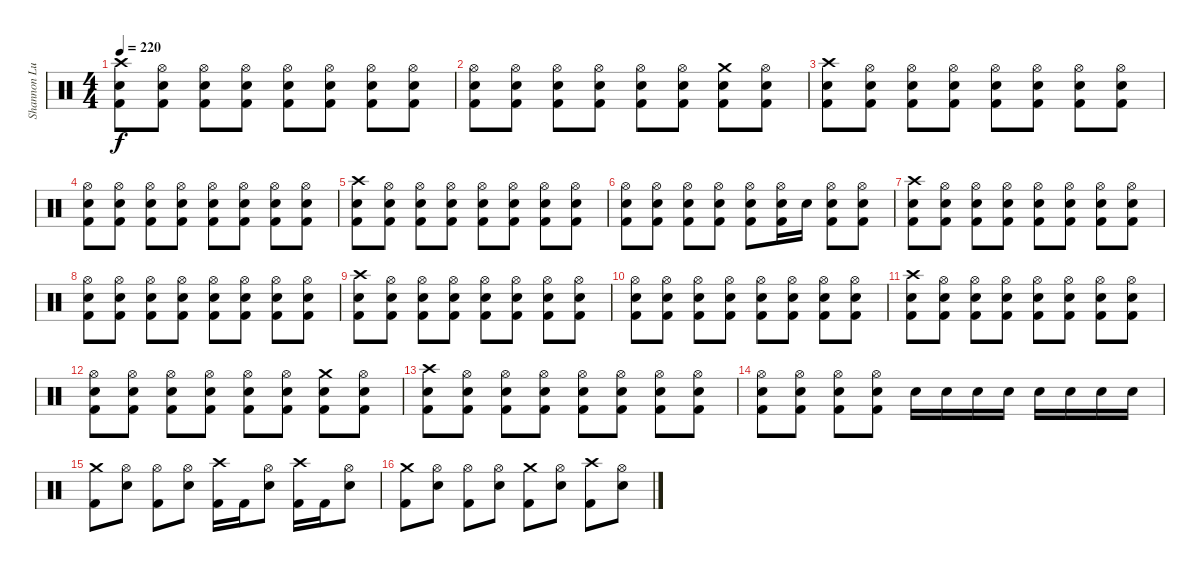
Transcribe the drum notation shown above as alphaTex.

\track ("Shannon Lucas [Drums (Since 2007)]" "Shannon Lu") {instrument percussion}
\staff {score}
\articulation defaults
\ts (4 4)
\tempo 220
\clef neutral
\ks c
("Crash high (hit)" "Kick (hit) 2" "Snare (hit) 2").8{dy f} ("Hi-Hat (open)" "Kick (hit) 2" "Snare (hit) 2").8 ("Hi-Hat (open)" "Kick (hit) 2" "Snare (hit) 2").8 ("Hi-Hat (open)" "Kick (hit) 2" "Snare (hit) 2").8 ("Hi-Hat (open)" "Kick (hit) 2" "Snare (hit) 2").8 ("Hi-Hat (open)" "Kick (hit) 2" "Snare (hit) 2").8 ("Hi-Hat (open)" "Kick (hit) 2" "Snare (hit) 2").8 ("Hi-Hat (open)" "Kick (hit) 2" "Snare (hit) 2").8 |
("Hi-Hat (open)" "Kick (hit) 2" "Snare (hit) 2").8 ("Hi-Hat (open)" "Kick (hit) 2" "Snare (hit) 2").8 ("Hi-Hat (open)" "Kick (hit) 2" "Snare (hit) 2").8 ("Hi-Hat (open)" "Kick (hit) 2" "Snare (hit) 2").8 ("Hi-Hat (open)" "Kick (hit) 2" "Snare (hit) 2").8 ("Hi-Hat (open)" "Kick (hit) 2" "Snare (hit) 2").8 ("Crash medium (hit)" "Kick (hit) 2" "Snare (hit) 2").8 ("Hi-Hat (open)" "Kick (hit) 2" "Snare (hit) 2").8 |
("Crash high (hit)" "Kick (hit) 2" "Snare (hit) 2").8 ("Hi-Hat (open)" "Kick (hit) 2" "Snare (hit) 2").8 ("Hi-Hat (open)" "Kick (hit) 2" "Snare (hit) 2").8 ("Hi-Hat (open)" "Kick (hit) 2" "Snare (hit) 2").8 ("Hi-Hat (open)" "Kick (hit) 2" "Snare (hit) 2").8 ("Hi-Hat (open)" "Kick (hit) 2" "Snare (hit) 2").8 ("Hi-Hat (open)" "Kick (hit) 2" "Snare (hit) 2").8 ("Hi-Hat (open)" "Kick (hit) 2" "Snare (hit) 2").8 |
("Hi-Hat (open)" "Kick (hit) 2" "Snare (hit) 2").8 ("Hi-Hat (open)" "Kick (hit) 2" "Snare (hit) 2").8 ("Hi-Hat (open)" "Kick (hit) 2" "Snare (hit) 2").8 ("Hi-Hat (open)" "Kick (hit) 2" "Snare (hit) 2").8 ("Hi-Hat (open)" "Kick (hit) 2" "Snare (hit) 2").8 ("Hi-Hat (open)" "Kick (hit) 2" "Snare (hit) 2").8 ("Hi-Hat (open)" "Kick (hit) 2" "Snare (hit) 2").8 ("Hi-Hat (open)" "Kick (hit) 2" "Snare (hit) 2").8 |
("Crash high (hit)" "Kick (hit) 2" "Snare (hit) 2").8 ("Hi-Hat (open)" "Kick (hit) 2" "Snare (hit) 2").8 ("Hi-Hat (open)" "Kick (hit) 2" "Snare (hit) 2").8 ("Hi-Hat (open)" "Kick (hit) 2" "Snare (hit) 2").8 ("Hi-Hat (open)" "Kick (hit) 2" "Snare (hit) 2").8 ("Hi-Hat (open)" "Kick (hit) 2" "Snare (hit) 2").8 ("Hi-Hat (open)" "Kick (hit) 2" "Snare (hit) 2").8 ("Hi-Hat (open)" "Kick (hit) 2" "Snare (hit) 2").8 |
("Hi-Hat (open)" "Kick (hit) 2" "Snare (hit) 2").8 ("Hi-Hat (open)" "Kick (hit) 2" "Snare (hit) 2").8 ("Hi-Hat (open)" "Kick (hit) 2" "Snare (hit) 2").8 ("Hi-Hat (open)" "Kick (hit) 2" "Snare (hit) 2").8 ("Hi-Hat (open)" "Kick (hit) 2" "Snare (hit) 2").8 ("Hi-Hat (open)" "Kick (hit) 2" "Snare (hit) 2").16 "Snare (hit) 2".16 ("Hi-Hat (open)" "Snare (hit) 2" "Kick (hit) 2").8 ("Hi-Hat (open)" "Snare (hit) 2" "Kick (hit) 2").8 |
("Crash high (hit)" "Kick (hit) 2" "Snare (hit) 2").8 ("Hi-Hat (open)" "Kick (hit) 2" "Snare (hit) 2").8 ("Hi-Hat (open)" "Kick (hit) 2" "Snare (hit) 2").8 ("Hi-Hat (open)" "Kick (hit) 2" "Snare (hit) 2").8 ("Hi-Hat (open)" "Kick (hit) 2" "Snare (hit) 2").8 ("Hi-Hat (open)" "Kick (hit) 2" "Snare (hit) 2").8 ("Hi-Hat (open)" "Kick (hit) 2" "Snare (hit) 2").8 ("Hi-Hat (open)" "Kick (hit) 2" "Snare (hit) 2").8 |
("Hi-Hat (open)" "Kick (hit) 2" "Snare (hit) 2").8 ("Hi-Hat (open)" "Kick (hit) 2" "Snare (hit) 2").8 ("Hi-Hat (open)" "Kick (hit) 2" "Snare (hit) 2").8 ("Hi-Hat (open)" "Kick (hit) 2" "Snare (hit) 2").8 ("Hi-Hat (open)" "Kick (hit) 2" "Snare (hit) 2").8 ("Hi-Hat (open)" "Kick (hit) 2" "Snare (hit) 2").8 ("Hi-Hat (open)" "Kick (hit) 2" "Snare (hit) 2").8 ("Hi-Hat (open)" "Kick (hit) 2" "Snare (hit) 2").8 |
("Crash high (hit)" "Kick (hit) 2" "Snare (hit) 2").8 ("Hi-Hat (open)" "Kick (hit) 2" "Snare (hit) 2").8 ("Hi-Hat (open)" "Kick (hit) 2" "Snare (hit) 2").8 ("Hi-Hat (open)" "Kick (hit) 2" "Snare (hit) 2").8 ("Hi-Hat (open)" "Kick (hit) 2" "Snare (hit) 2").8 ("Hi-Hat (open)" "Kick (hit) 2" "Snare (hit) 2").8 ("Hi-Hat (open)" "Kick (hit) 2" "Snare (hit) 2").8 ("Hi-Hat (open)" "Kick (hit) 2" "Snare (hit) 2").8 |
("Hi-Hat (open)" "Kick (hit) 2" "Snare (hit) 2").8 ("Hi-Hat (open)" "Kick (hit) 2" "Snare (hit) 2").8 ("Hi-Hat (open)" "Kick (hit) 2" "Snare (hit) 2").8 ("Hi-Hat (open)" "Kick (hit) 2" "Snare (hit) 2").8 ("Hi-Hat (open)" "Kick (hit) 2" "Snare (hit) 2").8 ("Hi-Hat (open)" "Kick (hit) 2" "Snare (hit) 2").8 ("Hi-Hat (open)" "Kick (hit) 2" "Snare (hit) 2").8 ("Hi-Hat (open)" "Kick (hit) 2" "Snare (hit) 2").8 |
("Crash high (hit)" "Kick (hit) 2" "Snare (hit) 2").8 ("Hi-Hat (open)" "Kick (hit) 2" "Snare (hit) 2").8 ("Hi-Hat (open)" "Kick (hit) 2" "Snare (hit) 2").8 ("Hi-Hat (open)" "Kick (hit) 2" "Snare (hit) 2").8 ("Hi-Hat (open)" "Kick (hit) 2" "Snare (hit) 2").8 ("Hi-Hat (open)" "Kick (hit) 2" "Snare (hit) 2").8 ("Hi-Hat (open)" "Kick (hit) 2" "Snare (hit) 2").8 ("Hi-Hat (open)" "Kick (hit) 2" "Snare (hit) 2").8 |
("Hi-Hat (open)" "Kick (hit) 2" "Snare (hit) 2").8 ("Hi-Hat (open)" "Kick (hit) 2" "Snare (hit) 2").8 ("Hi-Hat (open)" "Kick (hit) 2" "Snare (hit) 2").8 ("Hi-Hat (open)" "Kick (hit) 2" "Snare (hit) 2").8 ("Hi-Hat (open)" "Kick (hit) 2" "Snare (hit) 2").8 ("Hi-Hat (open)" "Kick (hit) 2" "Snare (hit) 2").8 ("Crash medium (hit)" "Kick (hit) 2" "Snare (hit) 2").8 ("Hi-Hat (open)" "Kick (hit) 2" "Snare (hit) 2").8 |
("Crash high (hit)" "Kick (hit) 2" "Snare (hit) 2").8 ("Hi-Hat (open)" "Kick (hit) 2" "Snare (hit) 2").8 ("Hi-Hat (open)" "Kick (hit) 2" "Snare (hit) 2").8 ("Hi-Hat (open)" "Kick (hit) 2" "Snare (hit) 2").8 ("Hi-Hat (open)" "Kick (hit) 2" "Snare (hit) 2").8 ("Hi-Hat (open)" "Kick (hit) 2" "Snare (hit) 2").8 ("Hi-Hat (open)" "Kick (hit) 2" "Snare (hit) 2").8 ("Hi-Hat (open)" "Kick (hit) 2" "Snare (hit) 2").8 |
("Hi-Hat (open)" "Kick (hit) 2" "Snare (hit) 2").8 ("Hi-Hat (open)" "Kick (hit) 2" "Snare (hit) 2").8 ("Hi-Hat (open)" "Kick (hit) 2" "Snare (hit) 2").8 ("Hi-Hat (open)" "Kick (hit) 2" "Snare (hit) 2").8 "Snare (hit) 2".16 "Snare (hit) 2".16 "Snare (hit) 2".16 "Snare (hit) 2".16 "Snare (hit) 2".16 "Snare (hit) 2".16 "Snare (hit) 2".16 "Snare (hit) 2".16 |
("Crash medium (hit)" "Kick (hit) 2").8 ("Hi-Hat (open)" "Snare (hit) 2").8 ("Hi-Hat (open)" "Kick (hit) 2").8 ("Hi-Hat (open)" "Snare (hit) 2").8 ("Crash high (hit)" "Kick (hit) 2").16 "Kick (hit) 2".16 ("Hi-Hat (open)" "Snare (hit) 2").8 ("Crash high (hit)" "Kick (hit) 2").16 "Kick (hit) 2".16 ("Hi-Hat (open)" "Snare (hit) 2").8 |
("Crash medium (hit)" "Kick (hit) 2").8 ("Hi-Hat (open)" "Snare (hit) 2").8 ("Hi-Hat (open)" "Kick (hit) 2").8 ("Hi-Hat (open)" "Snare (hit) 2").8 ("Crash medium (hit)" "Kick (hit) 2").8 ("Hi-Hat (open)" "Snare (hit) 2").8 ("Crash high (hit)" "Kick (hit) 2").8 ("Hi-Hat (open)" "Snare (hit) 2").8
